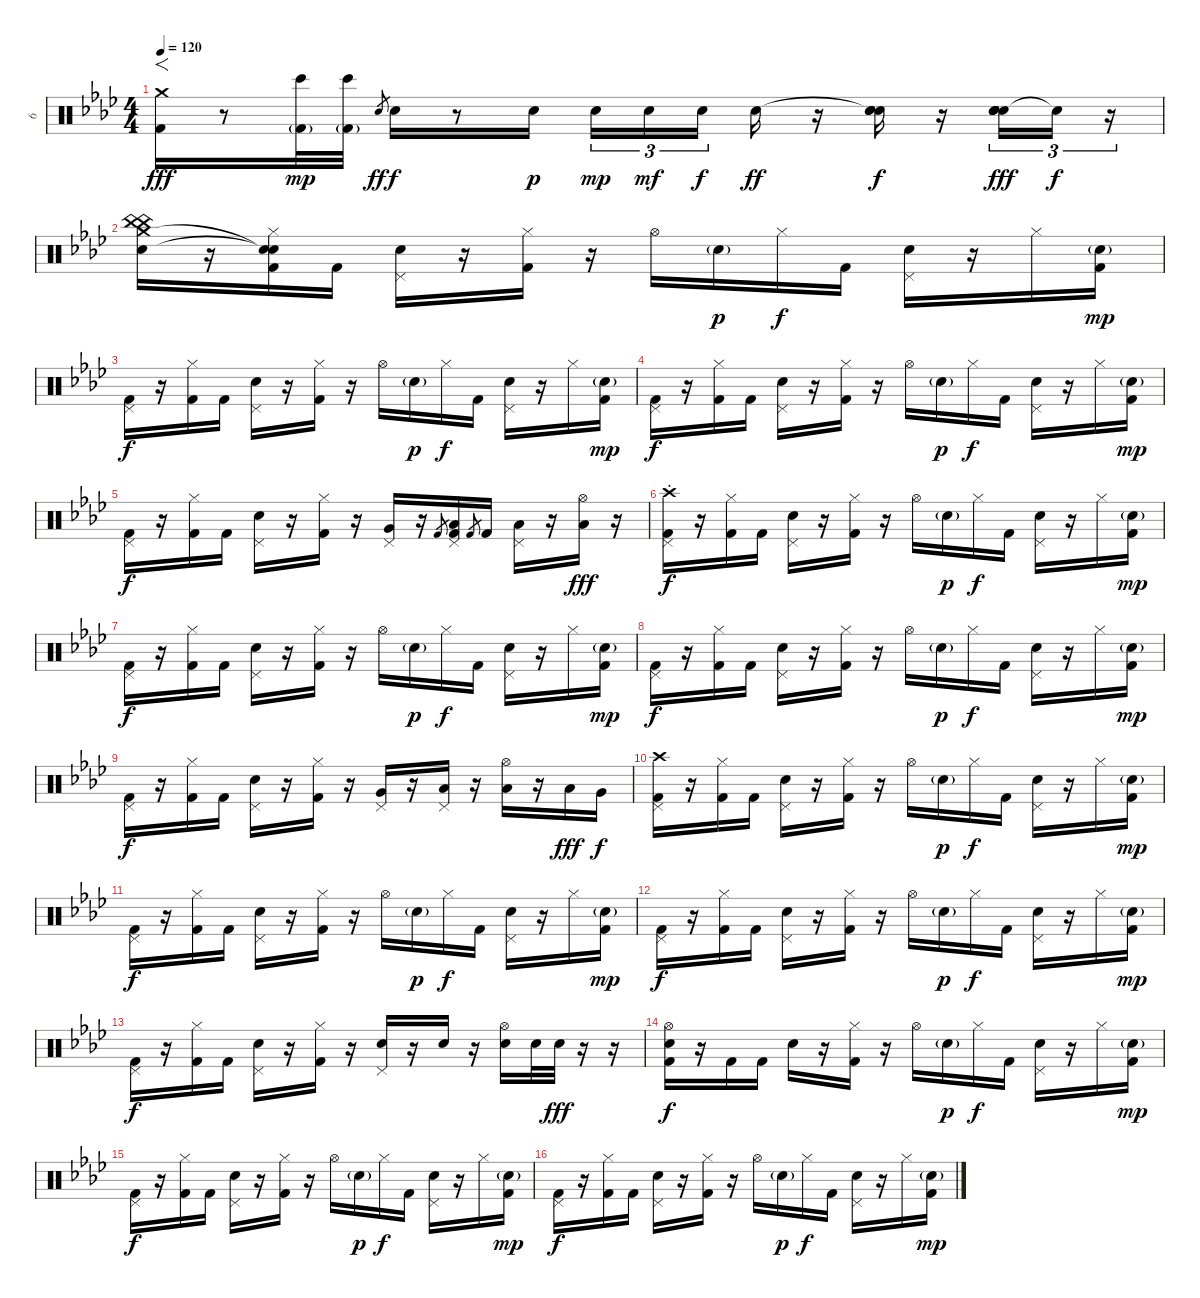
\track ("6" "6") {instrument percussion}
\staff {score}
\articulation defaults
\ts (4 4)
\tempo 120
\clef neutral
\ks fminor
("Crash medium (hit)" "Kick (hit) 2").16{f dy fff} r.8 ("Bongo High (hit)" "Kick (hit) 2"{g}).32{dy mp} ("Bongo High (hit)" "Kick (hit) 2"{g}).32 "Electric Snare (hit)".8{gr dy ff} "Electric Snare (hit)".16{dy f} r.8 "Electric Snare (hit)".16{dy p} "Electric Snare (hit)".16{tu (3 2) dy mp} "Electric Snare (hit)".16{tu (3 2) dy mf} "Electric Snare (hit)".16{tu (3 2) dy f beam splitsecondary} "Electric Snare (hit)".16{dy ff} r.16 ("Snare (hit)"{t} "Electric Snare (hit)" "Electric Snare (hit)").16{dy f} r.16 ("Electric Snare (hit)" "Electric Snare (hit)" "Electric Snare (hit)" "Electric Snare (hit)").16{tu (3 2) dy fff} "Snare (hit)"{t}.16{tu (3 2) dy f} r.16{tu (3 2)} |
("China (hit)" "Electric Snare (hit)" "Crash medium (hit)" "China (hit)").16 r.16 ("Hi-Hat (closed)" "Snare (hit)"{t} "Snare (hit)"{t} "Kick (hit) 2").16 "Kick (hit) 2".16 ("Pedal Hi-Hat (hit)" "Electric Snare (hit)").16 r.16 ("Hi-Hat (closed)" "Kick (hit) 2").16 r.16 "Hi-Hat (open)".16 "Electric Snare (hit)"{g}.16{dy p} "Hi-Hat (closed)".16{dy f} "Kick (hit) 2".16 ("Pedal Hi-Hat (hit)" "Electric Snare (hit)").16 r.16 "Hi-Hat (closed)".16 ("Electric Snare (hit)"{g} "Kick (hit) 2").16{dy mp} |
("Pedal Hi-Hat (hit)" "Kick (hit) 2").16{dy f} r.16 ("Hi-Hat (closed)" "Kick (hit) 2").16 "Kick (hit) 2".16 ("Pedal Hi-Hat (hit)" "Electric Snare (hit)").16 r.16 ("Hi-Hat (closed)" "Kick (hit) 2").16 r.16 "Hi-Hat (open)".16 "Electric Snare (hit)"{g}.16{dy p} "Hi-Hat (closed)".16{dy f} "Kick (hit) 2".16 ("Pedal Hi-Hat (hit)" "Electric Snare (hit)").16 r.16 "Hi-Hat (closed)".16 ("Electric Snare (hit)"{g} "Kick (hit) 2").16{dy mp} |
("Pedal Hi-Hat (hit)" "Kick (hit) 2").16{dy f} r.16 ("Hi-Hat (closed)" "Kick (hit) 2").16 "Kick (hit) 2".16 ("Pedal Hi-Hat (hit)" "Electric Snare (hit)").16 r.16 ("Hi-Hat (closed)" "Kick (hit) 2").16 r.16 "Hi-Hat (open)".16 "Electric Snare (hit)"{g}.16{dy p} "Hi-Hat (closed)".16{dy f} "Kick (hit) 2".16 ("Pedal Hi-Hat (hit)" "Electric Snare (hit)").16 r.16 "Hi-Hat (closed)".16 ("Electric Snare (hit)"{g} "Kick (hit) 2").16{dy mp} |
("Pedal Hi-Hat (hit)" "Kick (hit) 2").16{dy f} r.16 ("Hi-Hat (closed)" "Kick (hit) 2").16 "Kick (hit) 2".16 ("Pedal Hi-Hat (hit)" "Electric Snare (hit)").16 r.16 ("Hi-Hat (closed)" "Kick (hit) 2").16 r.16 ("Pedal Hi-Hat (hit)" "Very Low Tom (hit)").16 r.16 "Kick (hit) 2".8{gr} ("Pedal Hi-Hat (hit)" "Low Tom (hit)" "Kick (hit) 2").16 "Kick (hit) 2".8{gr} "Kick (hit) 2".16 ("Pedal Hi-Hat (hit)" "Low Floor Tom (hit)").16 r.16 ("Hi-Hat (open)" "Low Tom (hit)").16{dy fff} r.16 |
("Pedal Hi-Hat (hit)" "Crash high (hit)"{st} "Kick (hit) 2").16{dy f} r.16 ("Hi-Hat (closed)" "Kick (hit) 2").16 "Kick (hit) 2".16 ("Pedal Hi-Hat (hit)" "Electric Snare (hit)").16 r.16 ("Hi-Hat (closed)" "Kick (hit) 2").16 r.16 "Hi-Hat (open)".16 "Electric Snare (hit)"{g}.16{dy p} "Hi-Hat (closed)".16{dy f} "Kick (hit) 2".16 ("Pedal Hi-Hat (hit)" "Electric Snare (hit)").16 r.16 "Hi-Hat (closed)".16 ("Electric Snare (hit)"{g} "Kick (hit) 2").16{dy mp} |
("Pedal Hi-Hat (hit)" "Kick (hit) 2").16{dy f} r.16 ("Hi-Hat (closed)" "Kick (hit) 2").16 "Kick (hit) 2".16 ("Pedal Hi-Hat (hit)" "Electric Snare (hit)").16 r.16 ("Hi-Hat (closed)" "Kick (hit) 2").16 r.16 "Hi-Hat (open)".16 "Electric Snare (hit)"{g}.16{dy p} "Hi-Hat (closed)".16{dy f} "Kick (hit) 2".16 ("Pedal Hi-Hat (hit)" "Electric Snare (hit)").16 r.16 "Hi-Hat (closed)".16 ("Electric Snare (hit)"{g} "Kick (hit) 2").16{dy mp} |
("Pedal Hi-Hat (hit)" "Kick (hit) 2").16{dy f} r.16 ("Hi-Hat (closed)" "Kick (hit) 2").16 "Kick (hit) 2".16 ("Pedal Hi-Hat (hit)" "Electric Snare (hit)").16 r.16 ("Hi-Hat (closed)" "Kick (hit) 2").16 r.16 "Hi-Hat (open)".16 "Electric Snare (hit)"{g}.16{dy p} "Hi-Hat (closed)".16{dy f} "Kick (hit) 2".16 ("Pedal Hi-Hat (hit)" "Electric Snare (hit)").16 r.16 "Hi-Hat (closed)".16 ("Electric Snare (hit)"{g} "Kick (hit) 2").16{dy mp} |
("Pedal Hi-Hat (hit)" "Kick (hit) 2").16{dy f} r.16 ("Hi-Hat (closed)" "Kick (hit) 2").16 "Kick (hit) 2".16 ("Pedal Hi-Hat (hit)" "Electric Snare (hit)").16 r.16 ("Hi-Hat (closed)" "Kick (hit) 2").16 r.16 ("Pedal Hi-Hat (hit)" "Very Low Tom (hit)").16 r.16 ("Pedal Hi-Hat (hit)" "Low Tom (hit)").16 r.16 ("Hi-Hat (open)" "Low Floor Tom (hit)").16 r.16 "Low Tom (hit)".16{dy fff} "Very Low Tom (hit)".16{dy f} |
("Pedal Hi-Hat (hit)" "Crash high (hit)" "Kick (hit) 2").16 r.16 ("Hi-Hat (closed)" "Kick (hit) 2").16 "Kick (hit) 2".16 ("Pedal Hi-Hat (hit)" "Electric Snare (hit)").16 r.16 ("Hi-Hat (closed)" "Kick (hit) 2").16 r.16 "Hi-Hat (open)".16 "Electric Snare (hit)"{g}.16{dy p} "Hi-Hat (closed)".16{dy f} "Kick (hit) 2".16 ("Pedal Hi-Hat (hit)" "Electric Snare (hit)").16 r.16 "Hi-Hat (closed)".16 ("Electric Snare (hit)"{g} "Kick (hit) 2").16{dy mp} |
("Pedal Hi-Hat (hit)" "Kick (hit) 2").16{dy f} r.16 ("Hi-Hat (closed)" "Kick (hit) 2").16 "Kick (hit) 2".16 ("Pedal Hi-Hat (hit)" "Electric Snare (hit)").16 r.16 ("Hi-Hat (closed)" "Kick (hit) 2").16 r.16 "Hi-Hat (open)".16 "Electric Snare (hit)"{g}.16{dy p} "Hi-Hat (closed)".16{dy f} "Kick (hit) 2".16 ("Pedal Hi-Hat (hit)" "Electric Snare (hit)").16 r.16 "Hi-Hat (closed)".16 ("Electric Snare (hit)"{g} "Kick (hit) 2").16{dy mp} |
("Pedal Hi-Hat (hit)" "Kick (hit) 2").16{dy f} r.16 ("Hi-Hat (closed)" "Kick (hit) 2").16 "Kick (hit) 2".16 ("Pedal Hi-Hat (hit)" "Electric Snare (hit)").16 r.16 ("Hi-Hat (closed)" "Kick (hit) 2").16 r.16 "Hi-Hat (open)".16 "Electric Snare (hit)"{g}.16{dy p} "Hi-Hat (closed)".16{dy f} "Kick (hit) 2".16 ("Pedal Hi-Hat (hit)" "Electric Snare (hit)").16 r.16 "Hi-Hat (closed)".16 ("Electric Snare (hit)"{g} "Kick (hit) 2").16{dy mp} |
("Pedal Hi-Hat (hit)" "Kick (hit) 2").16{dy f} r.16 ("Hi-Hat (closed)" "Kick (hit) 2").16 "Kick (hit) 2".16 ("Pedal Hi-Hat (hit)" "Electric Snare (hit)").16 r.16 ("Hi-Hat (closed)" "Kick (hit) 2").16 r.16 ("Pedal Hi-Hat (hit)" "Electric Snare (hit)").16 r.16 "Electric Snare (hit)".16 r.16 ("Hi-Hat (open)" "Electric Snare (hit)").16 "Electric Snare (hit)".32 "Electric Snare (hit)".32{dy fff} r.16 r.16 |
("Hi-Hat (open)" "Electric Snare (hit)" "Kick (hit) 2").16{dy f} r.16 "Kick (hit) 2".16 "Kick (hit) 2".16 "Electric Snare (hit)".16 r.16 ("Hi-Hat (closed)" "Kick (hit) 2").16 r.16 "Hi-Hat (open)".16 "Electric Snare (hit)"{g}.16{dy p} "Hi-Hat (closed)".16{dy f} "Kick (hit) 2".16 ("Pedal Hi-Hat (hit)" "Electric Snare (hit)").16 r.16 "Hi-Hat (closed)".16 ("Electric Snare (hit)"{g} "Kick (hit) 2").16{dy mp} |
("Pedal Hi-Hat (hit)" "Kick (hit) 2").16{dy f} r.16 ("Hi-Hat (closed)" "Kick (hit) 2").16 "Kick (hit) 2".16 ("Pedal Hi-Hat (hit)" "Electric Snare (hit)").16 r.16 ("Hi-Hat (closed)" "Kick (hit) 2").16 r.16 "Hi-Hat (open)".16 "Electric Snare (hit)"{g}.16{dy p} "Hi-Hat (closed)".16{dy f} "Kick (hit) 2".16 ("Pedal Hi-Hat (hit)" "Electric Snare (hit)").16 r.16 "Hi-Hat (closed)".16 ("Electric Snare (hit)"{g} "Kick (hit) 2").16{dy mp} |
("Pedal Hi-Hat (hit)" "Kick (hit) 2").16{dy f} r.16 ("Hi-Hat (closed)" "Kick (hit) 2").16 "Kick (hit) 2".16 ("Pedal Hi-Hat (hit)" "Electric Snare (hit)").16 r.16 ("Hi-Hat (closed)" "Kick (hit) 2").16 r.16 "Hi-Hat (open)".16 "Electric Snare (hit)"{g}.16{dy p} "Hi-Hat (closed)".16{dy f} "Kick (hit) 2".16 ("Pedal Hi-Hat (hit)" "Electric Snare (hit)").16 r.16 "Hi-Hat (closed)".16 ("Electric Snare (hit)"{g} "Kick (hit) 2").16{dy mp}
